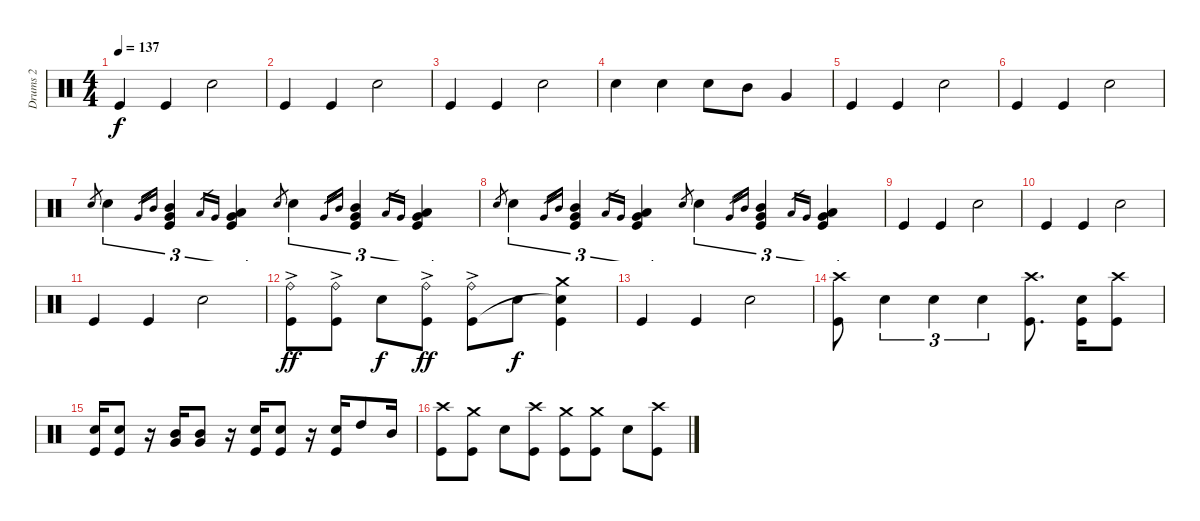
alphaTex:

\track ("Drums 2" "Drums 2") {instrument percussion}
\staff {score}
\articulation defaults
\ts (4 4)
\tempo 137
\clef neutral
\ks c "Kick (hit)".4{dy f} "Kick (hit)".4 "Snare (hit) 2".2
|
"Kick (hit)".4 "Kick (hit)".4 "Snare (hit) 2".2 |
"Kick (hit)".4 "Kick (hit)".4 "Snare (hit) 2".2 |
"Snare (hit) 2".4 "Snare (hit) 2".4 "Snare (hit) 2".8 "Mid Tom (hit)".8 "Very Low Tom (hit)".4 |
"Kick (hit)".4 "Kick (hit)".4 "Snare (hit) 2".2 |
"Kick (hit)".4 "Kick (hit)".4 "Snare (hit) 2".2 |
"Snare (hit) 2".8{gr} "Snare (hit) 2".4{tu (3 2)} "Very Low Tom (hit)".16{gr} "Mid Tom (hit)".16{gr} ("Very Low Tom (hit)" "Mid Tom (hit)" "Kick (hit)").4{tu (3 2)} "Low Floor Tom (hit)".16{gr} "Very Low Tom (hit)".16{gr} ("Low Floor Tom (hit)" "Very Low Tom (hit)" "Kick (hit)").4{tu (3 2)} "Snare (hit) 2".8{gr} "Snare (hit) 2".4{tu (3 2)} "Very Low Tom (hit)".16{gr} "Mid Tom (hit)".16{gr} ("Very Low Tom (hit)" "Mid Tom (hit)" "Kick (hit)").4{tu (3 2)} "Low Floor Tom (hit)".16{gr} "Very Low Tom (hit)".16{gr} ("Low Floor Tom (hit)" "Very Low Tom (hit)" "Kick (hit)").4{tu (3 2)} |
"Snare (hit) 2".8{gr} "Snare (hit) 2".4{tu (3 2)} "Very Low Tom (hit)".16{gr} "Mid Tom (hit)".16{gr} ("Very Low Tom (hit)" "Mid Tom (hit)" "Kick (hit)").4{tu (3 2)} "Low Floor Tom (hit)".16{gr} "Very Low Tom (hit)".16{gr} ("Low Floor Tom (hit)" "Very Low Tom (hit)" "Kick (hit)").4{tu (3 2)} "Snare (hit) 2".8{gr} "Snare (hit) 2".4{tu (3 2)} "Very Low Tom (hit)".16{gr} "Mid Tom (hit)".16{gr} ("Very Low Tom (hit)" "Mid Tom (hit)" "Kick (hit)").4{tu (3 2)} "Low Floor Tom (hit)".16{gr} "Very Low Tom (hit)".16{gr} ("Low Floor Tom (hit)" "Very Low Tom (hit)" "Kick (hit)").4{tu (3 2)} |
"Kick (hit)".4 "Kick (hit)".4 "Snare (hit) 2".2 |
"Kick (hit)".4 "Kick (hit)".4 "Snare (hit) 2".2 |
"Kick (hit)".4 "Kick (hit)".4 "Snare (hit) 2".2 |
("Ride (bell)"{ac} "Kick (hit)").8{dy ff} ("Ride (bell)"{ac} "Kick (hit)").8 "Snare (hit) 2".8{dy f} ("Ride (bell)"{ac} "Kick (hit)").8{dy ff} ("Ride (bell)"{ac} "Kick (hit)").8 "Snare (hit) 2".8{dy f} ("Crash medium (hit)" "Snare (hit) 2"{t} "Kick (hit)").4 |
"Kick (hit)".4 "Kick (hit)".4 "Snare (hit) 2".2 |
("Crash high (hit)" "Kick (hit)").8 "Snare (hit) 2".4{tu (3 2)} "Snare (hit) 2".4{tu (3 2)} "Snare (hit) 2".4{tu (3 2)} ("Crash high (hit)" "Kick (hit)").8{d} ("Snare (hit) 2" "Kick (hit)").16 ("Crash high (hit)" "Kick (hit)").8 |
("Snare (hit) 2" "Kick (hit)").16 ("Snare (hit) 2" "Kick (hit)").8 r.16 ("Mid Tom (hit)" "Very Low Tom (hit)").16 ("Mid Tom (hit)" "Very Low Tom (hit)").8 r.16 ("Snare (hit) 2" "Kick (hit)").16 ("Snare (hit) 2" "Kick (hit)").8 r.16 ("Snare (hit) 2" "Kick (hit)").16 "High Tom (hit)".8 "Mid Tom (hit)".16 |
("Crash high (hit)" "Kick (hit)").8 ("Crash medium (hit)" "Kick (hit)").8 "Snare (hit) 2".8 ("Crash high (hit)" "Kick (hit)").8 ("Crash medium (hit)" "Kick (hit)").8 ("Crash medium (hit)" "Kick (hit)").8 "Snare (hit) 2".8 ("Crash high (hit)" "Kick (hit)").8
